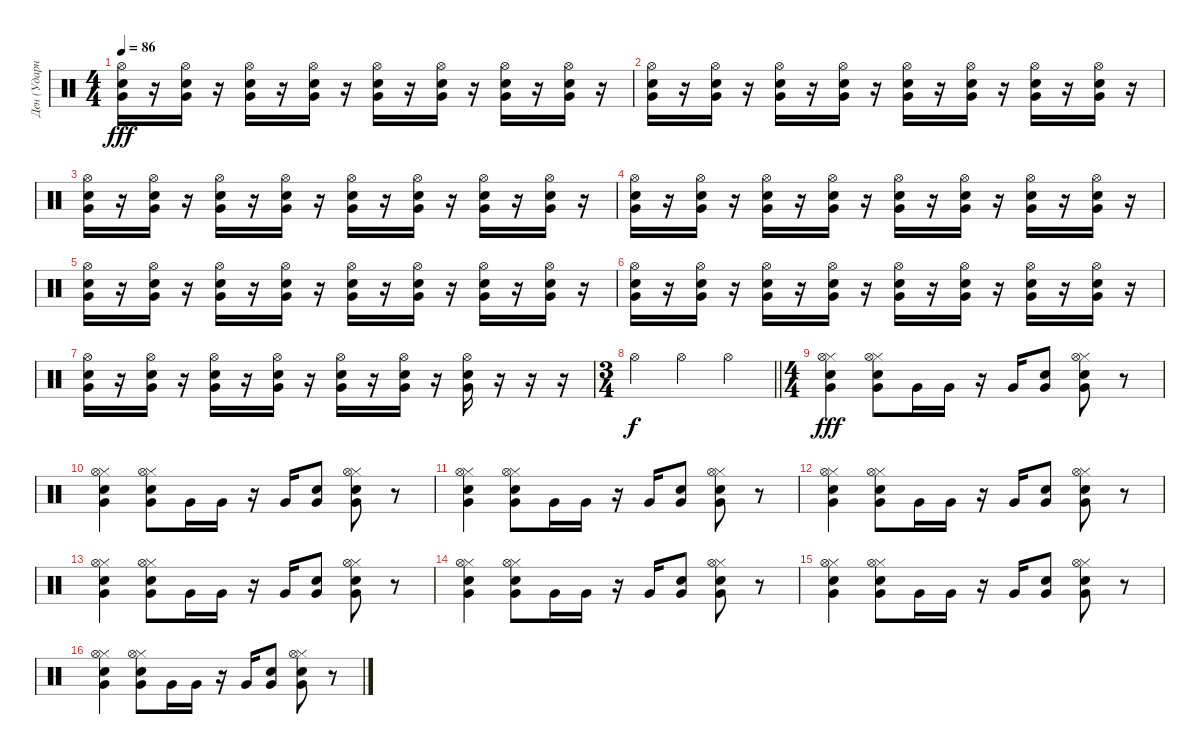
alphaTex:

\track ("Ден (Ударные)" "Ден (Ударн") {instrument percussion}
\staff {score}
\articulation defaults
\ts (4 4)
\tempo 86
\clef neutral
\ks c
("Hi-Hat (open)" "Very Low Tom (hit)" "Electric Snare (hit)").16{dy fff} r.16 ("Hi-Hat (open)" "Very Low Tom (hit)" "Electric Snare (hit)").16 r.16 ("Hi-Hat (open)" "Very Low Tom (hit)" "Electric Snare (hit)").16 r.16 ("Hi-Hat (open)" "Very Low Tom (hit)" "Electric Snare (hit)").16 r.16 ("Hi-Hat (open)" "Very Low Tom (hit)" "Electric Snare (hit)").16 r.16 ("Hi-Hat (open)" "Very Low Tom (hit)" "Electric Snare (hit)").16 r.16 ("Hi-Hat (open)" "Very Low Tom (hit)" "Electric Snare (hit)").16 r.16 ("Hi-Hat (open)" "Very Low Tom (hit)" "Electric Snare (hit)").16 r.16 |
("Hi-Hat (open)" "Very Low Tom (hit)" "Electric Snare (hit)").16 r.16 ("Hi-Hat (open)" "Very Low Tom (hit)" "Electric Snare (hit)").16 r.16 ("Hi-Hat (open)" "Very Low Tom (hit)" "Electric Snare (hit)").16 r.16 ("Hi-Hat (open)" "Very Low Tom (hit)" "Electric Snare (hit)").16 r.16 ("Hi-Hat (open)" "Very Low Tom (hit)" "Electric Snare (hit)").16 r.16 ("Hi-Hat (open)" "Very Low Tom (hit)" "Electric Snare (hit)").16 r.16 ("Hi-Hat (open)" "Very Low Tom (hit)" "Electric Snare (hit)").16 r.16 ("Hi-Hat (open)" "Very Low Tom (hit)" "Electric Snare (hit)").16 r.16 |
("Hi-Hat (open)" "Very Low Tom (hit)" "Electric Snare (hit)").16 r.16 ("Hi-Hat (open)" "Very Low Tom (hit)" "Electric Snare (hit)").16 r.16 ("Hi-Hat (open)" "Very Low Tom (hit)" "Electric Snare (hit)").16 r.16 ("Hi-Hat (open)" "Very Low Tom (hit)" "Electric Snare (hit)").16 r.16 ("Hi-Hat (open)" "Very Low Tom (hit)" "Electric Snare (hit)").16 r.16 ("Hi-Hat (open)" "Very Low Tom (hit)" "Electric Snare (hit)").16 r.16 ("Hi-Hat (open)" "Very Low Tom (hit)" "Electric Snare (hit)").16 r.16 ("Hi-Hat (open)" "Very Low Tom (hit)" "Electric Snare (hit)").16 r.16 |
("Hi-Hat (open)" "Very Low Tom (hit)" "Electric Snare (hit)").16 r.16 ("Hi-Hat (open)" "Very Low Tom (hit)" "Electric Snare (hit)").16 r.16 ("Hi-Hat (open)" "Very Low Tom (hit)" "Electric Snare (hit)").16 r.16 ("Hi-Hat (open)" "Very Low Tom (hit)" "Electric Snare (hit)").16 r.16 ("Hi-Hat (open)" "Very Low Tom (hit)" "Electric Snare (hit)").16 r.16 ("Hi-Hat (open)" "Very Low Tom (hit)" "Electric Snare (hit)").16 r.16 ("Hi-Hat (open)" "Very Low Tom (hit)" "Electric Snare (hit)").16 r.16 ("Hi-Hat (open)" "Very Low Tom (hit)" "Electric Snare (hit)").16 r.16 |
("Hi-Hat (open)" "Very Low Tom (hit)" "Electric Snare (hit)").16 r.16 ("Hi-Hat (open)" "Very Low Tom (hit)" "Electric Snare (hit)").16 r.16 ("Hi-Hat (open)" "Very Low Tom (hit)" "Electric Snare (hit)").16 r.16 ("Hi-Hat (open)" "Very Low Tom (hit)" "Electric Snare (hit)").16 r.16 ("Hi-Hat (open)" "Very Low Tom (hit)" "Electric Snare (hit)").16 r.16 ("Hi-Hat (open)" "Very Low Tom (hit)" "Electric Snare (hit)").16 r.16 ("Hi-Hat (open)" "Very Low Tom (hit)" "Electric Snare (hit)").16 r.16 ("Hi-Hat (open)" "Very Low Tom (hit)" "Electric Snare (hit)").16 r.16 |
("Hi-Hat (open)" "Very Low Tom (hit)" "Electric Snare (hit)").16 r.16 ("Hi-Hat (open)" "Very Low Tom (hit)" "Electric Snare (hit)").16 r.16 ("Hi-Hat (open)" "Very Low Tom (hit)" "Electric Snare (hit)").16 r.16 ("Hi-Hat (open)" "Very Low Tom (hit)" "Electric Snare (hit)").16 r.16 ("Hi-Hat (open)" "Very Low Tom (hit)" "Electric Snare (hit)").16 r.16 ("Hi-Hat (open)" "Very Low Tom (hit)" "Electric Snare (hit)").16 r.16 ("Hi-Hat (open)" "Very Low Tom (hit)" "Electric Snare (hit)").16 r.16 ("Hi-Hat (open)" "Very Low Tom (hit)" "Electric Snare (hit)").16 r.16 |
("Hi-Hat (open)" "Very Low Tom (hit)" "Electric Snare (hit)").16 r.16 ("Hi-Hat (open)" "Very Low Tom (hit)" "Electric Snare (hit)").16 r.16 ("Hi-Hat (open)" "Very Low Tom (hit)" "Electric Snare (hit)").16 r.16 ("Hi-Hat (open)" "Very Low Tom (hit)" "Electric Snare (hit)").16 r.16 ("Hi-Hat (open)" "Very Low Tom (hit)" "Electric Snare (hit)").16 r.16 ("Hi-Hat (open)" "Very Low Tom (hit)" "Electric Snare (hit)").16 r.16 ("Hi-Hat (open)" "Very Low Tom (hit)" "Electric Snare (hit)").16 r.16 r.16 r.16 |
\ts (3 4)
\barLineRight lightlight "Hi-Hat (open)".4{dy f} "Hi-Hat (open)".4 "Hi-Hat (open)".4
|
\ts (4 4)
("Very Low Tom (hit)" "Electric Snare (hit)" "Hi-Hat (closed)" "Hi-Hat (open)").4{dy fff} ("Very Low Tom (hit)" "Electric Snare (hit)" "Hi-Hat (closed)" "Hi-Hat (open)").8 "Very Low Tom (hit)".16 "Very Low Tom (hit)".16 r.16 "Very Low Tom (hit)".16 ("Electric Snare (hit)" "Very Low Tom (hit)").8 ("Very Low Tom (hit)" "Electric Snare (hit)" "Hi-Hat (closed)" "Hi-Hat (open)").8 r.8 |
("Very Low Tom (hit)" "Electric Snare (hit)" "Hi-Hat (closed)" "Hi-Hat (open)").4 ("Very Low Tom (hit)" "Electric Snare (hit)" "Hi-Hat (closed)" "Hi-Hat (open)").8 "Very Low Tom (hit)".16 "Very Low Tom (hit)".16 r.16 "Very Low Tom (hit)".16 ("Electric Snare (hit)" "Very Low Tom (hit)").8 ("Very Low Tom (hit)" "Electric Snare (hit)" "Hi-Hat (closed)" "Hi-Hat (open)").8 r.8 |
("Very Low Tom (hit)" "Electric Snare (hit)" "Hi-Hat (closed)" "Hi-Hat (open)").4 ("Very Low Tom (hit)" "Electric Snare (hit)" "Hi-Hat (closed)" "Hi-Hat (open)").8 "Very Low Tom (hit)".16 "Very Low Tom (hit)".16 r.16 "Very Low Tom (hit)".16 ("Electric Snare (hit)" "Very Low Tom (hit)").8 ("Very Low Tom (hit)" "Electric Snare (hit)" "Hi-Hat (closed)" "Hi-Hat (open)").8 r.8 |
("Very Low Tom (hit)" "Electric Snare (hit)" "Hi-Hat (closed)" "Hi-Hat (open)").4 ("Very Low Tom (hit)" "Electric Snare (hit)" "Hi-Hat (closed)" "Hi-Hat (open)").8 "Very Low Tom (hit)".16 "Very Low Tom (hit)".16 r.16 "Very Low Tom (hit)".16 ("Electric Snare (hit)" "Very Low Tom (hit)").8 ("Very Low Tom (hit)" "Electric Snare (hit)" "Hi-Hat (closed)" "Hi-Hat (open)").8 r.8 |
("Very Low Tom (hit)" "Electric Snare (hit)" "Hi-Hat (closed)" "Hi-Hat (open)").4 ("Very Low Tom (hit)" "Electric Snare (hit)" "Hi-Hat (closed)" "Hi-Hat (open)").8 "Very Low Tom (hit)".16 "Very Low Tom (hit)".16 r.16 "Very Low Tom (hit)".16 ("Electric Snare (hit)" "Very Low Tom (hit)").8 ("Very Low Tom (hit)" "Electric Snare (hit)" "Hi-Hat (closed)" "Hi-Hat (open)").8 r.8 |
("Very Low Tom (hit)" "Electric Snare (hit)" "Hi-Hat (closed)" "Hi-Hat (open)").4 ("Very Low Tom (hit)" "Electric Snare (hit)" "Hi-Hat (closed)" "Hi-Hat (open)").8 "Very Low Tom (hit)".16 "Very Low Tom (hit)".16 r.16 "Very Low Tom (hit)".16 ("Electric Snare (hit)" "Very Low Tom (hit)").8 ("Very Low Tom (hit)" "Electric Snare (hit)" "Hi-Hat (closed)" "Hi-Hat (open)").8 r.8 |
("Very Low Tom (hit)" "Electric Snare (hit)" "Hi-Hat (closed)" "Hi-Hat (open)").4 ("Very Low Tom (hit)" "Electric Snare (hit)" "Hi-Hat (closed)" "Hi-Hat (open)").8 "Very Low Tom (hit)".16 "Very Low Tom (hit)".16 r.16 "Very Low Tom (hit)".16 ("Electric Snare (hit)" "Very Low Tom (hit)").8 ("Very Low Tom (hit)" "Electric Snare (hit)" "Hi-Hat (closed)" "Hi-Hat (open)").8 r.8 |
("Very Low Tom (hit)" "Electric Snare (hit)" "Hi-Hat (closed)" "Hi-Hat (open)").4 ("Very Low Tom (hit)" "Electric Snare (hit)" "Hi-Hat (closed)" "Hi-Hat (open)").8 "Very Low Tom (hit)".16 "Very Low Tom (hit)".16 r.16 "Very Low Tom (hit)".16 ("Electric Snare (hit)" "Very Low Tom (hit)").8 ("Very Low Tom (hit)" "Electric Snare (hit)" "Hi-Hat (closed)" "Hi-Hat (open)").8 r.8
